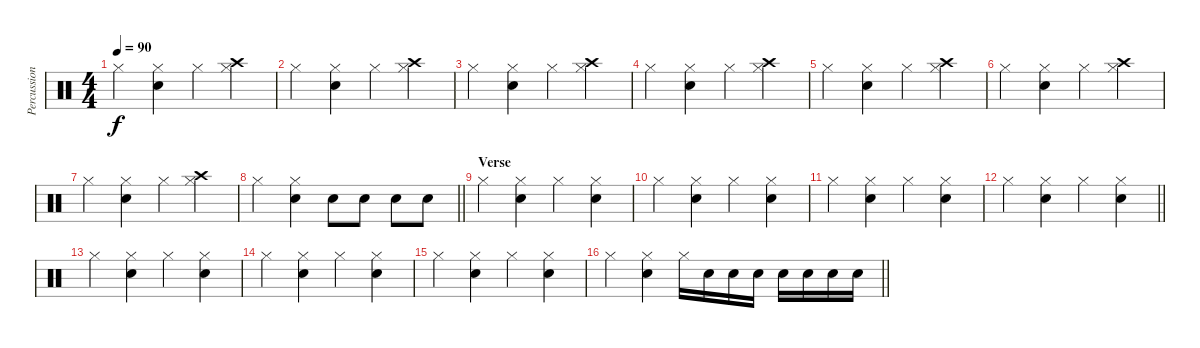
\track ("Percussion" "Percussion") {instrument percussion}
\staff {score}
\articulation defaults
\ts (4 4)
\tempo 90
\clef neutral
\ks c "Hi-Hat (closed)".4{dy f}
("Hi-Hat (closed)" "Snare (hit) 2").4 "Hi-Hat (closed)".4 ("Hi-Hat (closed)" "Crash high (hit)").4 |
"Hi-Hat (closed)".4 ("Hi-Hat (closed)" "Snare (hit) 2").4 "Hi-Hat (closed)".4 ("Hi-Hat (closed)" "Crash high (hit)").4 |
"Hi-Hat (closed)".4 ("Hi-Hat (closed)" "Snare (hit) 2").4 "Hi-Hat (closed)".4 ("Hi-Hat (closed)" "Crash high (hit)").4 |
"Hi-Hat (closed)".4 ("Hi-Hat (closed)" "Snare (hit) 2").4 "Hi-Hat (closed)".4 ("Hi-Hat (closed)" "Crash high (hit)").4 |
"Hi-Hat (closed)".4 ("Hi-Hat (closed)" "Snare (hit) 2").4 "Hi-Hat (closed)".4 ("Hi-Hat (closed)" "Crash high (hit)").4 |
"Hi-Hat (closed)".4 ("Hi-Hat (closed)" "Snare (hit) 2").4 "Hi-Hat (closed)".4 ("Hi-Hat (closed)" "Crash high (hit)").4 |
"Hi-Hat (closed)".4 ("Hi-Hat (closed)" "Snare (hit) 2").4 "Hi-Hat (closed)".4 ("Hi-Hat (closed)" "Crash high (hit)").4 |
\barLineRight lightlight "Hi-Hat (closed)".4
("Hi-Hat (closed)" "Snare (hit) 2").4 "Snare (hit) 2".8 "Electric Snare (hit)".8 "Snare (hit) 2".8 "Electric Snare (hit)".8 |
\section ("" "Verse")
"Hi-Hat (closed)".4 ("Hi-Hat (closed)" "Snare (hit) 2").4 "Hi-Hat (closed)".4 ("Hi-Hat (closed)" "Snare (hit) 2").4 |
"Hi-Hat (closed)".4 ("Hi-Hat (closed)" "Snare (hit) 2").4 "Hi-Hat (closed)".4 ("Hi-Hat (closed)" "Snare (hit) 2").4 |
"Hi-Hat (closed)".4 ("Hi-Hat (closed)" "Snare (hit) 2").4 "Hi-Hat (closed)".4 ("Hi-Hat (closed)" "Snare (hit) 2").4 |
\barLineRight lightlight "Hi-Hat (closed)".4
("Hi-Hat (closed)" "Snare (hit) 2").4 "Hi-Hat (closed)".4 ("Hi-Hat (closed)" "Snare (hit) 2").4 |
"Hi-Hat (closed)".4 ("Hi-Hat (closed)" "Snare (hit) 2").4 "Hi-Hat (closed)".4 ("Hi-Hat (closed)" "Snare (hit) 2").4 |
"Hi-Hat (closed)".4 ("Hi-Hat (closed)" "Snare (hit) 2").4 "Hi-Hat (closed)".4 ("Hi-Hat (closed)" "Snare (hit) 2").4 |
"Hi-Hat (closed)".4 ("Hi-Hat (closed)" "Snare (hit) 2").4 "Hi-Hat (closed)".4 ("Hi-Hat (closed)" "Snare (hit) 2").4 |
\barLineRight lightlight "Hi-Hat (closed)".4
("Hi-Hat (closed)" "Snare (hit) 2").4 "Hi-Hat (closed)".16 "Snare (hit) 2".16 "Electric Snare (hit)".16 "Snare (hit) 2".16 "Snare (hit) 2".16 "Electric Snare (hit)".16 "Snare (hit) 2".16 "Electric Snare (hit)".16
